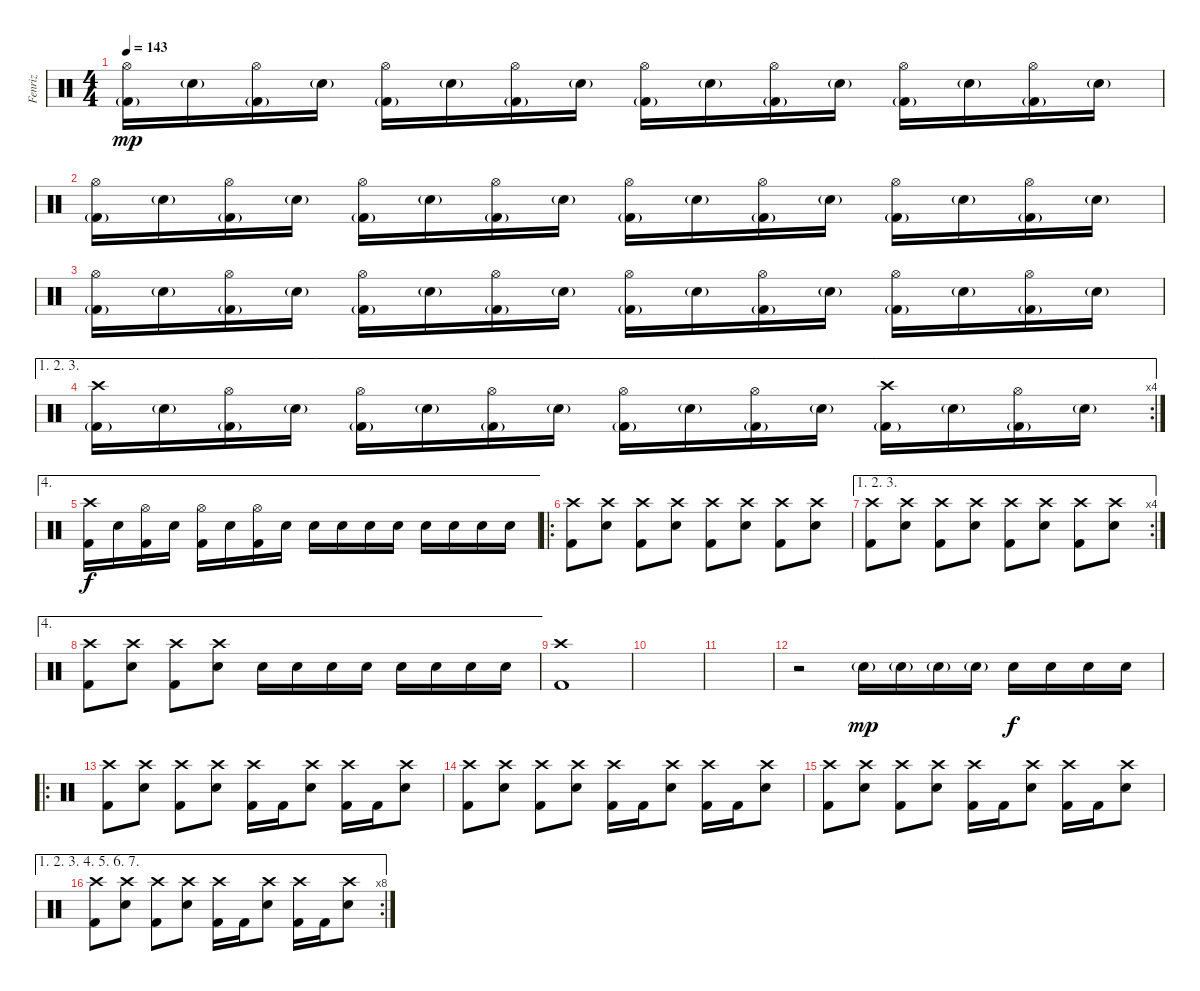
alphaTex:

\track ("Fenriz" "Fenriz") {instrument percussion}
\staff {score}
\articulation defaults
\ts (4 4)
\tempo 143
\clef neutral
\ks c
("Hi-Hat (open)" "Kick (hit) 2"{g}).16{dy mp} "Electric Snare (hit)"{g}.16 ("Hi-Hat (open)" "Kick (hit) 2"{g}).16 "Electric Snare (hit)"{g}.16 ("Hi-Hat (open)" "Kick (hit) 2"{g}).16 "Electric Snare (hit)"{g}.16 ("Hi-Hat (open)" "Kick (hit) 2"{g}).16 "Electric Snare (hit)"{g}.16 ("Hi-Hat (open)" "Kick (hit) 2"{g}).16 "Electric Snare (hit)"{g}.16 ("Hi-Hat (open)" "Kick (hit) 2"{g}).16 "Electric Snare (hit)"{g}.16 ("Hi-Hat (open)" "Kick (hit) 2"{g}).16 "Electric Snare (hit)"{g}.16 ("Hi-Hat (open)" "Kick (hit) 2"{g}).16 "Electric Snare (hit)"{g}.16 |
("Hi-Hat (open)" "Kick (hit) 2"{g}).16 "Electric Snare (hit)"{g}.16 ("Hi-Hat (open)" "Kick (hit) 2"{g}).16 "Electric Snare (hit)"{g}.16 ("Hi-Hat (open)" "Kick (hit) 2"{g}).16 "Electric Snare (hit)"{g}.16 ("Hi-Hat (open)" "Kick (hit) 2"{g}).16 "Electric Snare (hit)"{g}.16 ("Hi-Hat (open)" "Kick (hit) 2"{g}).16 "Electric Snare (hit)"{g}.16 ("Hi-Hat (open)" "Kick (hit) 2"{g}).16 "Electric Snare (hit)"{g}.16 ("Hi-Hat (open)" "Kick (hit) 2"{g}).16 "Electric Snare (hit)"{g}.16 ("Hi-Hat (open)" "Kick (hit) 2"{g}).16 "Electric Snare (hit)"{g}.16 |
("Hi-Hat (open)" "Kick (hit) 2"{g}).16 "Electric Snare (hit)"{g}.16 ("Hi-Hat (open)" "Kick (hit) 2"{g}).16 "Electric Snare (hit)"{g}.16 ("Hi-Hat (open)" "Kick (hit) 2"{g}).16 "Electric Snare (hit)"{g}.16 ("Hi-Hat (open)" "Kick (hit) 2"{g}).16 "Electric Snare (hit)"{g}.16 ("Hi-Hat (open)" "Kick (hit) 2"{g}).16 "Electric Snare (hit)"{g}.16 ("Hi-Hat (open)" "Kick (hit) 2"{g}).16 "Electric Snare (hit)"{g}.16 ("Hi-Hat (open)" "Kick (hit) 2"{g}).16 "Electric Snare (hit)"{g}.16 ("Hi-Hat (open)" "Kick (hit) 2"{g}).16 "Electric Snare (hit)"{g}.16 |
\ae (1 2 3)
\rc 4
("Crash high (hit)" "Kick (hit) 2"{g}).16 "Electric Snare (hit)"{g}.16 ("Hi-Hat (open)" "Kick (hit) 2"{g}).16 "Electric Snare (hit)"{g}.16 ("Hi-Hat (open)" "Kick (hit) 2"{g}).16 "Electric Snare (hit)"{g}.16 ("Hi-Hat (open)" "Kick (hit) 2"{g}).16 "Electric Snare (hit)"{g}.16 ("Hi-Hat (open)" "Kick (hit) 2"{g}).16 "Electric Snare (hit)"{g}.16 ("Hi-Hat (open)" "Kick (hit) 2"{g}).16 "Electric Snare (hit)"{g}.16 ("Crash high (hit)" "Kick (hit) 2"{g}).16 "Electric Snare (hit)"{g}.16 ("Hi-Hat (open)" "Kick (hit) 2"{g}).16 "Electric Snare (hit)"{g}.16 |
\ae 4
("Crash high (hit)" "Kick (hit) 2").16{dy f} "Electric Snare (hit)".16 ("Hi-Hat (open)" "Kick (hit) 2").16 "Electric Snare (hit)".16 ("Hi-Hat (open)" "Kick (hit) 2").16 "Electric Snare (hit)".16 ("Hi-Hat (open)" "Kick (hit) 2").16 "Electric Snare (hit)".16 "Electric Snare (hit)".16 "Electric Snare (hit)".16 "Electric Snare (hit)".16 "Electric Snare (hit)".16 "Electric Snare (hit)".16 "Electric Snare (hit)".16 "Electric Snare (hit)".16 "Electric Snare (hit)".16 |
\ro
("Crash high (hit)" "Kick (hit) 2").8 ("Crash high (hit)" "Electric Snare (hit)").8 ("Crash high (hit)" "Kick (hit) 2").8 ("Crash high (hit)" "Electric Snare (hit)").8 ("Crash high (hit)" "Kick (hit) 2").8 ("Crash high (hit)" "Electric Snare (hit)").8 ("Crash high (hit)" "Kick (hit) 2").8 ("Crash high (hit)" "Electric Snare (hit)").8 |
\ae (1 2 3)
\rc 4
("Crash high (hit)" "Kick (hit) 2").8 ("Crash high (hit)" "Electric Snare (hit)").8 ("Crash high (hit)" "Kick (hit) 2").8 ("Crash high (hit)" "Electric Snare (hit)").8 ("Crash high (hit)" "Kick (hit) 2").8 ("Crash high (hit)" "Electric Snare (hit)").8 ("Crash high (hit)" "Kick (hit) 2").8 ("Crash high (hit)" "Electric Snare (hit)").8 |
\ae 4
("Crash high (hit)" "Kick (hit) 2").8 ("Crash high (hit)" "Electric Snare (hit)").8 ("Crash high (hit)" "Kick (hit) 2").8 ("Crash high (hit)" "Electric Snare (hit)").8 "Electric Snare (hit)".16 "Electric Snare (hit)".16 "Electric Snare (hit)".16 "Electric Snare (hit)".16 "Electric Snare (hit)".16 "Electric Snare (hit)".16 "Electric Snare (hit)".16 "Electric Snare (hit)".16 |
("Crash high (hit)" "Kick (hit) 2").1 |
|
|
r.2 "Electric Snare (hit)"{g}.16{dy mp} "Electric Snare (hit)"{g}.16 "Electric Snare (hit)"{g}.16 "Electric Snare (hit)"{g}.16 "Electric Snare (hit)".16{dy f} "Electric Snare (hit)".16 "Electric Snare (hit)".16 "Electric Snare (hit)".16 |
\ro
("Crash high (hit)" "Kick (hit) 2").8 ("Crash high (hit)" "Electric Snare (hit)").8 ("Crash high (hit)" "Kick (hit) 2").8 ("Crash high (hit)" "Electric Snare (hit)").8 ("Crash high (hit)" "Kick (hit) 2").16 "Kick (hit) 2".16 ("Crash high (hit)" "Electric Snare (hit)").8 ("Crash high (hit)" "Kick (hit) 2").16 "Kick (hit) 2".16 ("Crash high (hit)" "Electric Snare (hit)").8 |
("Crash high (hit)" "Kick (hit) 2").8 ("Crash high (hit)" "Electric Snare (hit)").8 ("Crash high (hit)" "Kick (hit) 2").8 ("Crash high (hit)" "Electric Snare (hit)").8 ("Crash high (hit)" "Kick (hit) 2").16 "Kick (hit) 2".16 ("Crash high (hit)" "Electric Snare (hit)").8 ("Crash high (hit)" "Kick (hit) 2").16 "Kick (hit) 2".16 ("Crash high (hit)" "Electric Snare (hit)").8 |
("Crash high (hit)" "Kick (hit) 2").8 ("Crash high (hit)" "Electric Snare (hit)").8 ("Crash high (hit)" "Kick (hit) 2").8 ("Crash high (hit)" "Electric Snare (hit)").8 ("Crash high (hit)" "Kick (hit) 2").16 "Kick (hit) 2".16 ("Crash high (hit)" "Electric Snare (hit)").8 ("Crash high (hit)" "Kick (hit) 2").16 "Kick (hit) 2".16 ("Crash high (hit)" "Electric Snare (hit)").8 |
\ae (1 2 3 4 5 6 7)
\rc 8
("Crash high (hit)" "Kick (hit) 2").8 ("Crash high (hit)" "Electric Snare (hit)").8 ("Crash high (hit)" "Kick (hit) 2").8 ("Crash high (hit)" "Electric Snare (hit)").8 ("Crash high (hit)" "Kick (hit) 2").16 "Kick (hit) 2".16 ("Crash high (hit)" "Electric Snare (hit)").8 ("Crash high (hit)" "Kick (hit) 2").16 "Kick (hit) 2".16 ("Crash high (hit)" "Electric Snare (hit)").8
